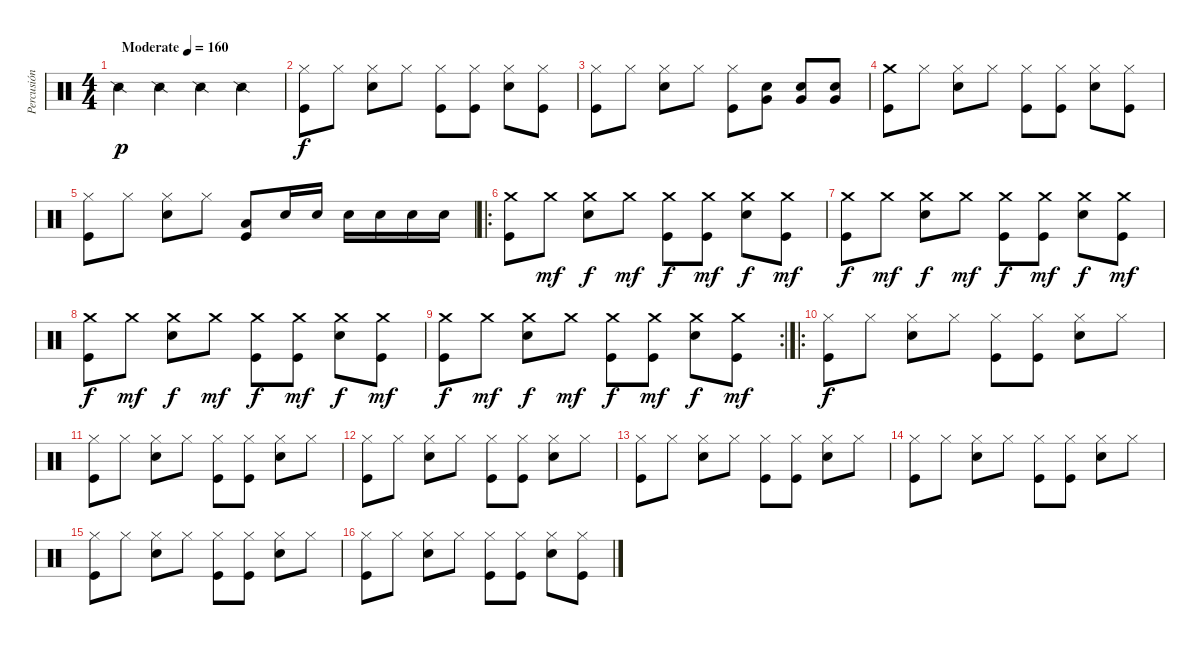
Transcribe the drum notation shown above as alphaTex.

\track ("Percusión" "Percusión") {instrument percussion}
\staff {score}
\articulation defaults
\ts (4 4)
\tempo (160 "Moderate")
\clef neutral
\ks c "Snare (side stick) 2".4{dy p} "Snare (side stick) 2".4 "Snare (side stick) 2".4 "Snare (side stick) 2".4
|
("Hi-Hat (closed)" "Kick (hit)").8{dy f} "Hi-Hat (closed)".8 ("Hi-Hat (closed)" "Electric Snare (hit)").8 "Hi-Hat (closed)".8 ("Hi-Hat (closed)" "Kick (hit)").8 ("Hi-Hat (closed)" "Kick (hit)").8 ("Hi-Hat (closed)" "Electric Snare (hit)").8 ("Hi-Hat (closed)" "Kick (hit)").8 |
("Hi-Hat (closed)" "Kick (hit)").8 "Hi-Hat (closed)".8 ("Hi-Hat (closed)" "Electric Snare (hit)").8 "Hi-Hat (closed)".8 ("Hi-Hat (closed)" "Kick (hit)").8 ("Very Low Tom (hit)" "Electric Snare (hit)").8 ("Very Low Tom (hit)" "Electric Snare (hit)").8 ("Very Low Tom (hit)" "Electric Snare (hit)").8 |
("Crash medium (hit)" "Kick (hit)").8 "Hi-Hat (closed)".8 ("Hi-Hat (closed)" "Electric Snare (hit)").8 "Hi-Hat (closed)".8 ("Hi-Hat (closed)" "Kick (hit)").8 ("Hi-Hat (closed)" "Kick (hit)").8 ("Hi-Hat (closed)" "Electric Snare (hit)").8 ("Hi-Hat (closed)" "Kick (hit)").8 |
("Hi-Hat (closed)" "Kick (hit)").8 "Hi-Hat (closed)".8 ("Hi-Hat (closed)" "Electric Snare (hit)").8 "Hi-Hat (closed)".8 ("Low Tom (hit)" "Kick (hit)").8 "Electric Snare (hit)".16 "Electric Snare (hit)".16 "Electric Snare (hit)".16 "Electric Snare (hit)".16 "Electric Snare (hit)".16 "Electric Snare (hit)".16 |
\ro
("Crash medium (hit)" "Kick (hit)").8 "Crash medium (hit)".8{dy mf} ("Crash medium (hit)" "Electric Snare (hit)").8{dy f} "Crash medium (hit)".8{dy mf} ("Crash medium (hit)" "Kick (hit)").8{dy f} ("Crash medium (hit)" "Kick (hit)").8{dy mf} ("Crash medium (hit)" "Electric Snare (hit)").8{dy f} ("Crash medium (hit)" "Kick (hit)").8{dy mf} |
("Crash medium (hit)" "Kick (hit)").8{dy f} "Crash medium (hit)".8{dy mf} ("Crash medium (hit)" "Electric Snare (hit)").8{dy f} "Crash medium (hit)".8{dy mf} ("Crash medium (hit)" "Kick (hit)").8{dy f} ("Crash medium (hit)" "Kick (hit)").8{dy mf} ("Crash medium (hit)" "Electric Snare (hit)").8{dy f} ("Crash medium (hit)" "Kick (hit)").8{dy mf} |
("Crash medium (hit)" "Kick (hit)").8{dy f} "Crash medium (hit)".8{dy mf} ("Crash medium (hit)" "Electric Snare (hit)").8{dy f} "Crash medium (hit)".8{dy mf} ("Crash medium (hit)" "Kick (hit)").8{dy f} ("Crash medium (hit)" "Kick (hit)").8{dy mf} ("Crash medium (hit)" "Electric Snare (hit)").8{dy f} ("Crash medium (hit)" "Kick (hit)").8{dy mf} |
\rc 2
("Crash medium (hit)" "Kick (hit)").8{dy f} "Crash medium (hit)".8{dy mf} ("Crash medium (hit)" "Electric Snare (hit)").8{dy f} "Crash medium (hit)".8{dy mf} ("Crash medium (hit)" "Kick (hit)").8{dy f} ("Crash medium (hit)" "Kick (hit)").8{dy mf} ("Crash medium (hit)" "Electric Snare (hit)").8{dy f} ("Crash medium (hit)" "Kick (hit)").8{dy mf} |
\ro
("Hi-Hat (closed)" "Kick (hit)").8{dy f} "Hi-Hat (closed)".8 ("Hi-Hat (closed)" "Electric Snare (hit)").8 "Hi-Hat (closed)".8 ("Hi-Hat (closed)" "Kick (hit)").8 ("Hi-Hat (closed)" "Kick (hit)").8 ("Hi-Hat (closed)" "Electric Snare (hit)").8 "Hi-Hat (closed)".8 |
("Hi-Hat (closed)" "Kick (hit)").8 "Hi-Hat (closed)".8 ("Hi-Hat (closed)" "Electric Snare (hit)").8 "Hi-Hat (closed)".8 ("Hi-Hat (closed)" "Kick (hit)").8 ("Hi-Hat (closed)" "Kick (hit)").8 ("Hi-Hat (closed)" "Electric Snare (hit)").8 "Hi-Hat (closed)".8 |
("Hi-Hat (closed)" "Kick (hit)").8 "Hi-Hat (closed)".8 ("Hi-Hat (closed)" "Electric Snare (hit)").8 "Hi-Hat (closed)".8 ("Hi-Hat (closed)" "Kick (hit)").8 ("Hi-Hat (closed)" "Kick (hit)").8 ("Hi-Hat (closed)" "Electric Snare (hit)").8 "Hi-Hat (closed)".8 |
("Hi-Hat (closed)" "Kick (hit)").8 "Hi-Hat (closed)".8 ("Hi-Hat (closed)" "Electric Snare (hit)").8 "Hi-Hat (closed)".8 ("Hi-Hat (closed)" "Kick (hit)").8 ("Hi-Hat (closed)" "Kick (hit)").8 ("Hi-Hat (closed)" "Electric Snare (hit)").8 "Hi-Hat (closed)".8 |
("Hi-Hat (closed)" "Kick (hit)").8 "Hi-Hat (closed)".8 ("Hi-Hat (closed)" "Electric Snare (hit)").8 "Hi-Hat (closed)".8 ("Hi-Hat (closed)" "Kick (hit)").8 ("Hi-Hat (closed)" "Kick (hit)").8 ("Hi-Hat (closed)" "Electric Snare (hit)").8 "Hi-Hat (closed)".8 |
("Hi-Hat (closed)" "Kick (hit)").8 "Hi-Hat (closed)".8 ("Hi-Hat (closed)" "Electric Snare (hit)").8 "Hi-Hat (closed)".8 ("Hi-Hat (closed)" "Kick (hit)").8 ("Hi-Hat (closed)" "Kick (hit)").8 ("Hi-Hat (closed)" "Electric Snare (hit)").8 "Hi-Hat (closed)".8 |
("Hi-Hat (closed)" "Kick (hit)").8 "Hi-Hat (closed)".8 ("Hi-Hat (closed)" "Electric Snare (hit)").8 "Hi-Hat (closed)".8 ("Hi-Hat (closed)" "Kick (hit)").8 ("Hi-Hat (closed)" "Kick (hit)").8 ("Hi-Hat (closed)" "Electric Snare (hit)").8 ("Hi-Hat (closed)" "Kick (hit)").8
